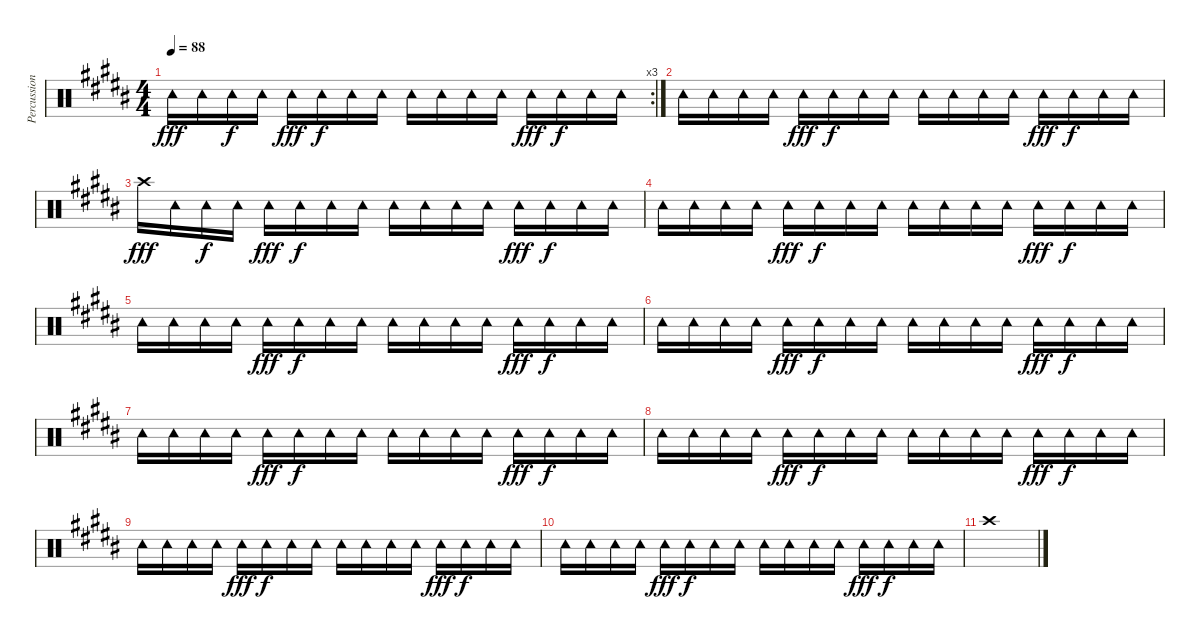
\track ("Percussions" "Percussion") {instrument percussion}
\staff {score}
\articulation defaults
\rc 3
\ts (4 4)
\tempo 88
\clef neutral
\ks b "Tambourine (hit)".16{dy fff} "Tambourine (hit)".16 "Tambourine (hit)".16{dy f} "Tambourine (hit)".16 "Tambourine (hit)".16{dy fff} "Tambourine (hit)".16{dy f} "Tambourine (hit)".16 "Tambourine (hit)".16 "Tambourine (hit)".16 "Tambourine (hit)".16 "Tambourine (hit)".16 "Tambourine (hit)".16 "Tambourine (hit)".16{dy fff} "Tambourine (hit)".16{dy f} "Tambourine (hit)".16 "Tambourine (hit)".16
|
"Tambourine (hit)".16 "Tambourine (hit)".16 "Tambourine (hit)".16 "Tambourine (hit)".16 "Tambourine (hit)".16{dy fff} "Tambourine (hit)".16{dy f} "Tambourine (hit)".16 "Tambourine (hit)".16 "Tambourine (hit)".16 "Tambourine (hit)".16 "Tambourine (hit)".16 "Tambourine (hit)".16 "Tambourine (hit)".16{dy fff} "Tambourine (hit)".16{dy f} "Tambourine (hit)".16 "Tambourine (hit)".16 |
"Crash high (hit)".16{dy fff} "Tambourine (hit)".16 "Tambourine (hit)".16{dy f} "Tambourine (hit)".16 "Tambourine (hit)".16{dy fff} "Tambourine (hit)".16{dy f} "Tambourine (hit)".16 "Tambourine (hit)".16 "Tambourine (hit)".16 "Tambourine (hit)".16 "Tambourine (hit)".16 "Tambourine (hit)".16 "Tambourine (hit)".16{dy fff} "Tambourine (hit)".16{dy f} "Tambourine (hit)".16 "Tambourine (hit)".16 |
"Tambourine (hit)".16 "Tambourine (hit)".16 "Tambourine (hit)".16 "Tambourine (hit)".16 "Tambourine (hit)".16{dy fff} "Tambourine (hit)".16{dy f} "Tambourine (hit)".16 "Tambourine (hit)".16 "Tambourine (hit)".16 "Tambourine (hit)".16 "Tambourine (hit)".16 "Tambourine (hit)".16 "Tambourine (hit)".16{dy fff} "Tambourine (hit)".16{dy f} "Tambourine (hit)".16 "Tambourine (hit)".16 |
"Tambourine (hit)".16 "Tambourine (hit)".16 "Tambourine (hit)".16 "Tambourine (hit)".16 "Tambourine (hit)".16{dy fff} "Tambourine (hit)".16{dy f} "Tambourine (hit)".16 "Tambourine (hit)".16 "Tambourine (hit)".16 "Tambourine (hit)".16 "Tambourine (hit)".16 "Tambourine (hit)".16 "Tambourine (hit)".16{dy fff} "Tambourine (hit)".16{dy f} "Tambourine (hit)".16 "Tambourine (hit)".16 |
"Tambourine (hit)".16 "Tambourine (hit)".16 "Tambourine (hit)".16 "Tambourine (hit)".16 "Tambourine (hit)".16{dy fff} "Tambourine (hit)".16{dy f} "Tambourine (hit)".16 "Tambourine (hit)".16 "Tambourine (hit)".16 "Tambourine (hit)".16 "Tambourine (hit)".16 "Tambourine (hit)".16 "Tambourine (hit)".16{dy fff} "Tambourine (hit)".16{dy f} "Tambourine (hit)".16 "Tambourine (hit)".16 |
"Tambourine (hit)".16 "Tambourine (hit)".16 "Tambourine (hit)".16 "Tambourine (hit)".16 "Tambourine (hit)".16{dy fff} "Tambourine (hit)".16{dy f} "Tambourine (hit)".16 "Tambourine (hit)".16 "Tambourine (hit)".16 "Tambourine (hit)".16 "Tambourine (hit)".16 "Tambourine (hit)".16 "Tambourine (hit)".16{dy fff} "Tambourine (hit)".16{dy f} "Tambourine (hit)".16 "Tambourine (hit)".16 |
"Tambourine (hit)".16 "Tambourine (hit)".16 "Tambourine (hit)".16 "Tambourine (hit)".16 "Tambourine (hit)".16{dy fff} "Tambourine (hit)".16{dy f} "Tambourine (hit)".16 "Tambourine (hit)".16 "Tambourine (hit)".16 "Tambourine (hit)".16 "Tambourine (hit)".16 "Tambourine (hit)".16 "Tambourine (hit)".16{dy fff} "Tambourine (hit)".16{dy f} "Tambourine (hit)".16 "Tambourine (hit)".16 |
"Tambourine (hit)".16 "Tambourine (hit)".16 "Tambourine (hit)".16 "Tambourine (hit)".16 "Tambourine (hit)".16{dy fff} "Tambourine (hit)".16{dy f} "Tambourine (hit)".16 "Tambourine (hit)".16 "Tambourine (hit)".16 "Tambourine (hit)".16 "Tambourine (hit)".16 "Tambourine (hit)".16 "Tambourine (hit)".16{dy fff} "Tambourine (hit)".16{dy f} "Tambourine (hit)".16 "Tambourine (hit)".16 |
"Tambourine (hit)".16 "Tambourine (hit)".16 "Tambourine (hit)".16 "Tambourine (hit)".16 "Tambourine (hit)".16{dy fff} "Tambourine (hit)".16{dy f} "Tambourine (hit)".16 "Tambourine (hit)".16 "Tambourine (hit)".16 "Tambourine (hit)".16 "Tambourine (hit)".16 "Tambourine (hit)".16 "Tambourine (hit)".16{dy fff} "Tambourine (hit)".16{dy f} "Tambourine (hit)".16 "Tambourine (hit)".16 |
"Crash high (hit)".1
